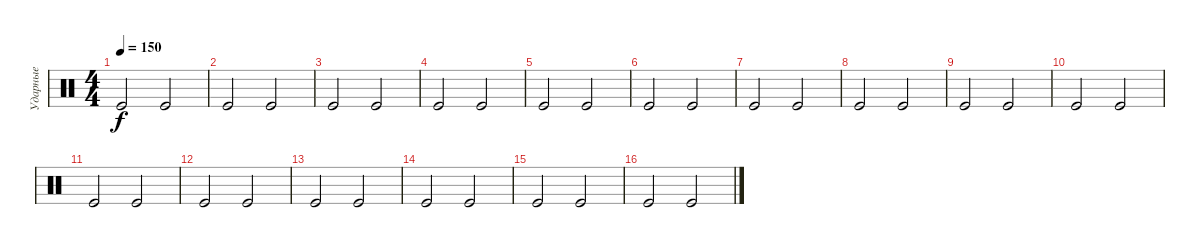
\track ("Ударные" "Ударные") {instrument percussion}
\staff {score}
\articulation defaults
\ts (4 4)
\tempo 150
\clef neutral
\ks c "Kick (hit)".2{dy f} "Kick (hit)".2
|
"Kick (hit)".2 "Kick (hit)".2 |
"Kick (hit)".2 "Kick (hit)".2 |
"Kick (hit)".2 "Kick (hit)".2 |
"Kick (hit)".2 "Kick (hit)".2 |
"Kick (hit)".2 "Kick (hit)".2 |
"Kick (hit)".2 "Kick (hit)".2 |
"Kick (hit)".2 "Kick (hit)".2 |
"Kick (hit)".2 "Kick (hit)".2 |
"Kick (hit)".2 "Kick (hit)".2 |
"Kick (hit)".2 "Kick (hit)".2 |
"Kick (hit)".2 "Kick (hit)".2 |
"Kick (hit)".2 "Kick (hit)".2 |
"Kick (hit)".2 "Kick (hit)".2 |
"Kick (hit)".2 "Kick (hit)".2 |
"Kick (hit)".2 "Kick (hit)".2
